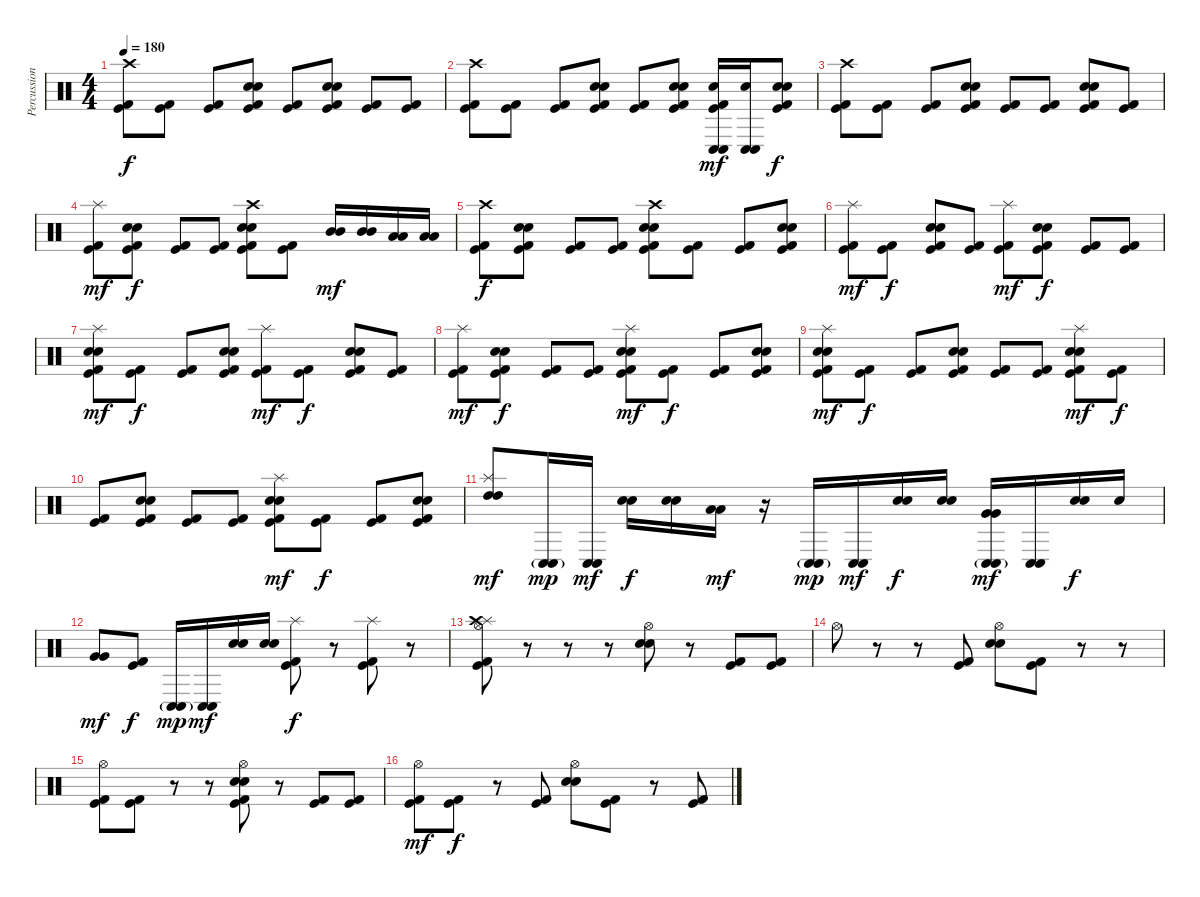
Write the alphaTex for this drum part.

\track ("Percussion" "Percussion") {instrument percussion}
\staff {score}
\articulation defaults
\ts (4 4)
\tempo 180
\clef neutral
\ks c
("Crash high (hit)" "Kick (hit) 2" "Kick (hit)").8{dy f} ("Kick (hit) 2" "Kick (hit)").8 ("Kick (hit) 2" "Kick (hit)").8 ("Electric Snare (hit)" "Electric Snare (hit)" "Kick (hit) 2" "Kick (hit)").8 ("Kick (hit) 2" "Kick (hit)").8 ("Electric Snare (hit)" "Electric Snare (hit)" "Kick (hit) 2" "Kick (hit)").8 ("Kick (hit) 2" "Kick (hit)").8 ("Kick (hit) 2" "Kick (hit)").8 |
("Crash high (hit)" "Kick (hit) 2" "Kick (hit)").8 ("Kick (hit) 2" "Kick (hit)").8 ("Kick (hit) 2" "Kick (hit)").8 ("Electric Snare (hit)" "Electric Snare (hit)" "Kick (hit) 2" "Kick (hit)").8 ("Kick (hit) 2" "Kick (hit)").8 ("Electric Snare (hit)" "Electric Snare (hit)" "Kick (hit) 2" "Kick (hit)").8 ("Conga low (hit)" "Conga low (hit)" "Electric Snare (hit)" "Kick (hit) 2" "Kick (hit)").16{dy mf} ("Conga low (hit)" "Conga low (hit)" "Electric Snare (hit)").16 ("Electric Snare (hit)" "Electric Snare (hit)" "Kick (hit) 2" "Kick (hit)").8{dy f} |
("Crash high (hit)" "Kick (hit) 2" "Kick (hit)").8 ("Kick (hit) 2" "Kick (hit)").8 ("Kick (hit) 2" "Kick (hit)").8 ("Electric Snare (hit)" "Electric Snare (hit)" "Kick (hit) 2" "Kick (hit)").8 ("Kick (hit) 2" "Kick (hit)").8 ("Kick (hit) 2" "Kick (hit)").8 ("Electric Snare (hit)" "Electric Snare (hit)" "Kick (hit) 2" "Kick (hit)").8 ("Kick (hit) 2" "Kick (hit)").8 |
("Splash (hit)" "Kick (hit) 2" "Kick (hit)").8{dy mf} ("Electric Snare (hit)" "Electric Snare (hit)" "Kick (hit) 2" "Kick (hit)").8{dy f} ("Kick (hit) 2" "Kick (hit)").8 ("Kick (hit) 2" "Kick (hit)").8 ("Crash high (hit)" "Electric Snare (hit)" "Electric Snare (hit)" "Kick (hit) 2" "Kick (hit)").8 ("Kick (hit) 2" "Kick (hit)").8 ("Mid Tom (hit)" "Mid Tom (hit)").16{dy mf} ("Mid Tom (hit)" "Mid Tom (hit)").16 ("Low Tom (hit)" "Low Tom (hit)").16 ("Low Tom (hit)" "Low Tom (hit)").16 |
("Crash high (hit)" "Kick (hit) 2" "Kick (hit)").8{dy f} ("Electric Snare (hit)" "Electric Snare (hit)" "Kick (hit) 2" "Kick (hit)").8 ("Kick (hit) 2" "Kick (hit)").8 ("Kick (hit) 2" "Kick (hit)").8 ("Crash high (hit)" "Electric Snare (hit)" "Electric Snare (hit)" "Kick (hit) 2" "Kick (hit)").8 ("Kick (hit) 2" "Kick (hit)").8 ("Kick (hit) 2" "Kick (hit)").8 ("Electric Snare (hit)" "Electric Snare (hit)" "Kick (hit) 2" "Kick (hit)").8 |
("Splash (hit)" "Kick (hit) 2" "Kick (hit)").8{dy mf} ("Kick (hit) 2" "Kick (hit)").8{dy f} ("Electric Snare (hit)" "Electric Snare (hit)" "Kick (hit) 2" "Kick (hit)").8 ("Kick (hit) 2" "Kick (hit)").8 ("Splash (hit)" "Kick (hit) 2" "Kick (hit)").8{dy mf} ("Electric Snare (hit)" "Electric Snare (hit)" "Kick (hit) 2" "Kick (hit)").8{dy f} ("Kick (hit) 2" "Kick (hit)").8 ("Kick (hit) 2" "Kick (hit)").8 |
("Splash (hit)" "Electric Snare (hit)" "Electric Snare (hit)" "Kick (hit) 2" "Kick (hit)").8{dy mf} ("Kick (hit) 2" "Kick (hit)").8{dy f} ("Kick (hit) 2" "Kick (hit)").8 ("Electric Snare (hit)" "Electric Snare (hit)" "Kick (hit) 2" "Kick (hit)").8 ("Splash (hit)" "Kick (hit) 2" "Kick (hit)").8{dy mf} ("Kick (hit) 2" "Kick (hit)").8{dy f} ("Electric Snare (hit)" "Electric Snare (hit)" "Kick (hit) 2" "Kick (hit)").8 ("Kick (hit) 2" "Kick (hit)").8 |
("Splash (hit)" "Kick (hit) 2" "Kick (hit)").8{dy mf} ("Electric Snare (hit)" "Electric Snare (hit)" "Kick (hit) 2" "Kick (hit)").8{dy f} ("Kick (hit) 2" "Kick (hit)").8 ("Kick (hit) 2" "Kick (hit)").8 ("Splash (hit)" "Electric Snare (hit)" "Electric Snare (hit)" "Kick (hit) 2" "Kick (hit)").8{dy mf} ("Kick (hit) 2" "Kick (hit)").8{dy f} ("Kick (hit) 2" "Kick (hit)").8 ("Electric Snare (hit)" "Electric Snare (hit)" "Kick (hit) 2" "Kick (hit)").8 |
("Splash (hit)" "Electric Snare (hit)" "Electric Snare (hit)" "Kick (hit) 2" "Kick (hit)").8{dy mf} ("Kick (hit) 2" "Kick (hit)").8{dy f} ("Kick (hit) 2" "Kick (hit)").8 ("Electric Snare (hit)" "Electric Snare (hit)" "Kick (hit) 2" "Kick (hit)").8 ("Kick (hit) 2" "Kick (hit)").8 ("Kick (hit) 2" "Kick (hit)").8 ("Splash (hit)" "Electric Snare (hit)" "Electric Snare (hit)" "Kick (hit) 2" "Kick (hit)").8{dy mf} ("Kick (hit) 2" "Kick (hit)").8{dy f} |
("Kick (hit) 2" "Kick (hit)").8 ("Electric Snare (hit)" "Electric Snare (hit)" "Kick (hit) 2" "Kick (hit)").8 ("Kick (hit) 2" "Kick (hit)").8 ("Kick (hit) 2" "Kick (hit)").8 ("Splash (hit)" "Electric Snare (hit)" "Electric Snare (hit)" "Kick (hit) 2" "Kick (hit)").8{dy mf} ("Kick (hit) 2" "Kick (hit)").8{dy f} ("Kick (hit) 2" "Kick (hit)").8 ("Electric Snare (hit)" "Electric Snare (hit)" "Kick (hit) 2" "Kick (hit)").8 |
("Splash (hit)" "High Tom (hit)" "High Tom (hit)").8{dy mf} ("Conga low (hit)"{g} "Conga low (hit)"{g}).16{dy mp} ("Conga low (hit)" "Conga low (hit)").16{dy mf} ("Electric Snare (hit)" "Electric Snare (hit)").16{dy f} ("Electric Snare (hit)" "Electric Snare (hit)").16 ("Low Tom (hit)" "Low Tom (hit)").16{dy mf} r.16 ("Conga low (hit)"{g} "Conga low (hit)"{g}).16{dy mp} ("Conga low (hit)" "Conga low (hit)").16{dy mf} ("Electric Snare (hit)" "Electric Snare (hit)").16{dy f} ("Electric Snare (hit)" "Electric Snare (hit)").16 ("Conga low (hit)"{g} "Conga low (hit)"{g} "Very Low Tom (hit)" "Very Low Tom (hit)").16{dy mf} ("Conga low (hit)" "Conga low (hit)").16 ("Electric Snare (hit)" "Electric Snare (hit)").16{dy f} "Electric Snare (hit)".16 |
("Very Low Tom (hit)" "Very Low Tom (hit)").8{dy mf} ("Kick (hit) 2" "Kick (hit)").8{dy f} ("Conga low (hit)"{g} "Conga low (hit)"{g}).16{dy mp} ("Conga low (hit)" "Conga low (hit)").16{dy mf} ("Electric Snare (hit)" "Electric Snare (hit)").16 ("Electric Snare (hit)" "Electric Snare (hit)").16 ("Splash (hit)" "Kick (hit) 2" "Kick (hit)").8{dy f} r.8 ("Splash (hit)" "Kick (hit) 2" "Kick (hit)").8 r.8 |
("Splash (hit)" "Crash high (hit)" "Hi-Hat (open)" "Kick (hit) 2" "Kick (hit)").8 r.8 r.8 r.8 ("Hi-Hat (open)" "Electric Snare (hit)" "Electric Snare (hit)").8 r.8 ("Kick (hit) 2" "Kick (hit)").8 ("Kick (hit) 2" "Kick (hit)").8 |
"Hi-Hat (open)".8 r.8 r.8 ("Kick (hit) 2" "Kick (hit)").8 ("Hi-Hat (open)" "Electric Snare (hit)" "Electric Snare (hit)").8 ("Kick (hit) 2" "Kick (hit)").8 r.8 r.8 |
("Hi-Hat (open)" "Kick (hit) 2" "Kick (hit)").8 ("Kick (hit) 2" "Kick (hit)").8 r.8 r.8 ("Hi-Hat (open)" "Electric Snare (hit)" "Electric Snare (hit)" "Kick (hit) 2" "Kick (hit)").8 r.8 ("Kick (hit) 2" "Kick (hit)").8 ("Kick (hit) 2" "Kick (hit)").8 |
("Hi-Hat (open)" "Kick (hit) 2" "Kick (hit)").8{dy mf} ("Kick (hit) 2" "Kick (hit)").8{dy f} r.8 ("Kick (hit) 2" "Kick (hit)").8 ("Hi-Hat (open)" "Electric Snare (hit)" "Electric Snare (hit)").8 ("Kick (hit) 2" "Kick (hit)").8 r.8 ("Kick (hit) 2" "Kick (hit)").8
